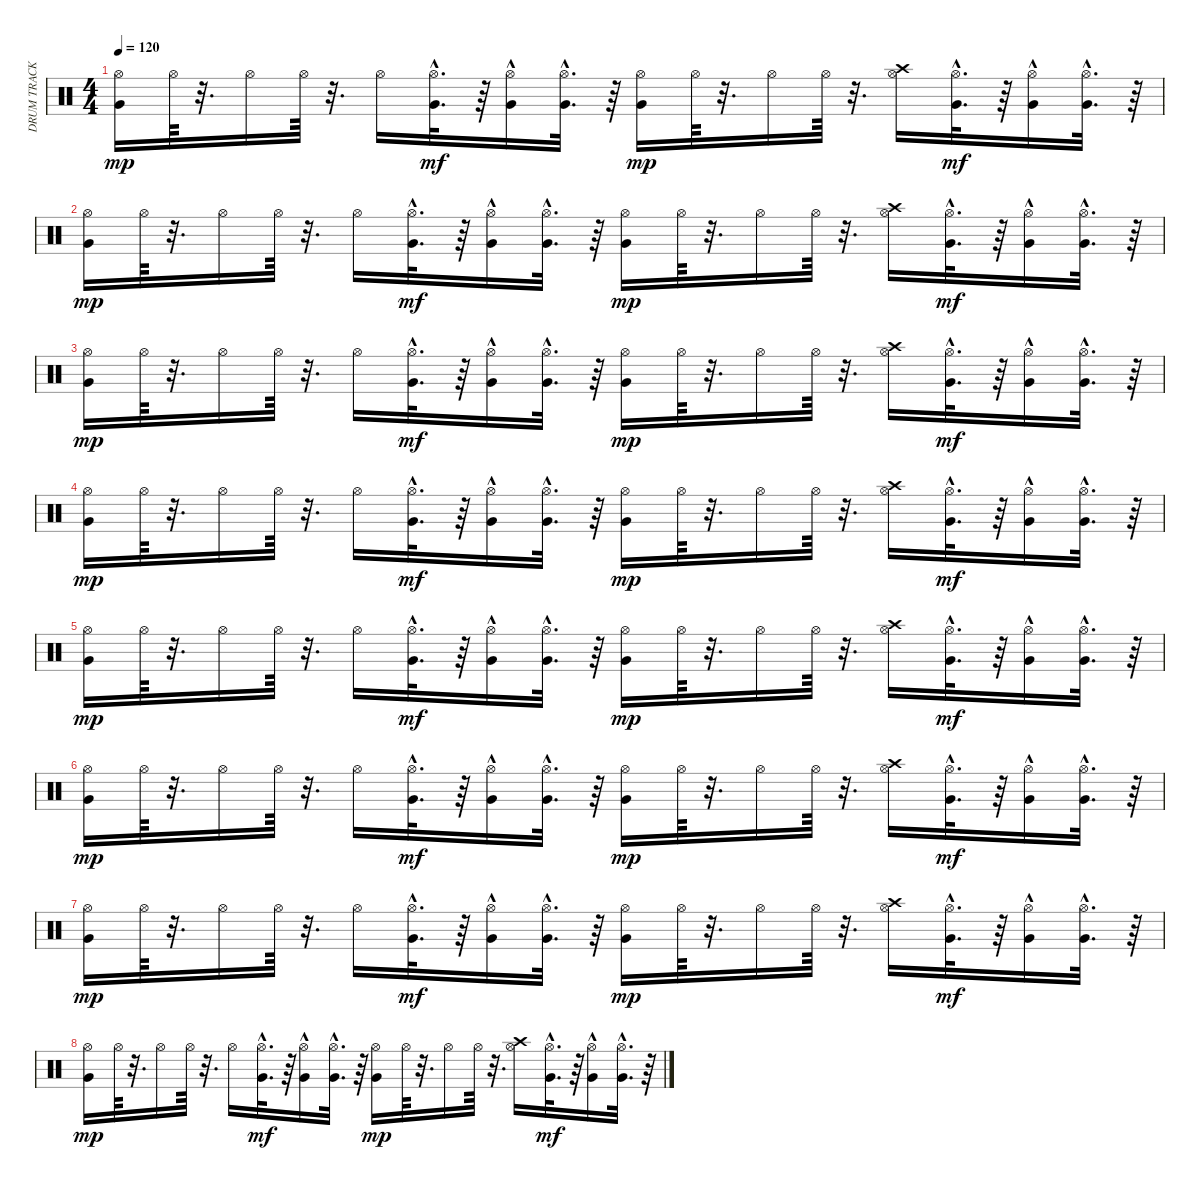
\track ("DRUM TRACK          " "DRUM TRACK") {instrument percussion}
\staff {score}
\articulation defaults
\ts (4 4)
\tempo 120
\clef neutral
\ks c
("Hi-Hat (open)" "Very Low Tom (hit)").16{dy mp} "Hi-Hat (open)".64 r.32{d} "Hi-Hat (open)".16 "Hi-Hat (open)".64 r.32{d} "Hi-Hat (open)".16 ("Hi-Hat (open)" "Very Low Tom (hit)"{hac}).32{d dy mf} r.64 ("Hi-Hat (open)" "Very Low Tom (hit)"{hac}).16 ("Hi-Hat (open)" "Very Low Tom (hit)"{hac}).32{d} r.64 ("Very Low Tom (hit)" "Hi-Hat (open)").16{dy mp} "Hi-Hat (open)".64 r.32{d} "Hi-Hat (open)".16 "Hi-Hat (open)".64 r.32{d} ("Hi-Hat (open)" "Crash high (hit)").16 ("Hi-Hat (open)" "Very Low Tom (hit)"{hac}).32{d dy mf} r.64 ("Hi-Hat (open)" "Very Low Tom (hit)"{hac}).16 ("Hi-Hat (open)" "Very Low Tom (hit)"{hac}).32{d} r.64 |
("Hi-Hat (open)" "Very Low Tom (hit)").16{dy mp} "Hi-Hat (open)".64 r.32{d} "Hi-Hat (open)".16 "Hi-Hat (open)".64 r.32{d} "Hi-Hat (open)".16 ("Hi-Hat (open)" "Very Low Tom (hit)"{hac}).32{d dy mf} r.64 ("Hi-Hat (open)" "Very Low Tom (hit)"{hac}).16 ("Hi-Hat (open)" "Very Low Tom (hit)"{hac}).32{d} r.64 ("Very Low Tom (hit)" "Hi-Hat (open)").16{dy mp} "Hi-Hat (open)".64 r.32{d} "Hi-Hat (open)".16 "Hi-Hat (open)".64 r.32{d} ("Hi-Hat (open)" "Crash high (hit)").16 ("Hi-Hat (open)" "Very Low Tom (hit)"{hac}).32{d dy mf} r.64 ("Hi-Hat (open)" "Very Low Tom (hit)"{hac}).16 ("Hi-Hat (open)" "Very Low Tom (hit)"{hac}).32{d} r.64 |
("Hi-Hat (open)" "Very Low Tom (hit)").16{dy mp} "Hi-Hat (open)".64 r.32{d} "Hi-Hat (open)".16 "Hi-Hat (open)".64 r.32{d} "Hi-Hat (open)".16 ("Hi-Hat (open)" "Very Low Tom (hit)"{hac}).32{d dy mf} r.64 ("Hi-Hat (open)" "Very Low Tom (hit)"{hac}).16 ("Hi-Hat (open)" "Very Low Tom (hit)"{hac}).32{d} r.64 ("Very Low Tom (hit)" "Hi-Hat (open)").16{dy mp} "Hi-Hat (open)".64 r.32{d} "Hi-Hat (open)".16 "Hi-Hat (open)".64 r.32{d} ("Hi-Hat (open)" "Crash high (hit)").16 ("Hi-Hat (open)" "Very Low Tom (hit)"{hac}).32{d dy mf} r.64 ("Hi-Hat (open)" "Very Low Tom (hit)"{hac}).16 ("Hi-Hat (open)" "Very Low Tom (hit)"{hac}).32{d} r.64 |
("Hi-Hat (open)" "Very Low Tom (hit)").16{dy mp} "Hi-Hat (open)".64 r.32{d} "Hi-Hat (open)".16 "Hi-Hat (open)".64 r.32{d} "Hi-Hat (open)".16 ("Hi-Hat (open)" "Very Low Tom (hit)"{hac}).32{d dy mf} r.64 ("Hi-Hat (open)" "Very Low Tom (hit)"{hac}).16 ("Hi-Hat (open)" "Very Low Tom (hit)"{hac}).32{d} r.64 ("Very Low Tom (hit)" "Hi-Hat (open)").16{dy mp} "Hi-Hat (open)".64 r.32{d} "Hi-Hat (open)".16 "Hi-Hat (open)".64 r.32{d} ("Hi-Hat (open)" "Crash high (hit)").16 ("Hi-Hat (open)" "Very Low Tom (hit)"{hac}).32{d dy mf} r.64 ("Hi-Hat (open)" "Very Low Tom (hit)"{hac}).16 ("Hi-Hat (open)" "Very Low Tom (hit)"{hac}).32{d} r.64 |
("Hi-Hat (open)" "Very Low Tom (hit)").16{dy mp} "Hi-Hat (open)".64 r.32{d} "Hi-Hat (open)".16 "Hi-Hat (open)".64 r.32{d} "Hi-Hat (open)".16 ("Hi-Hat (open)" "Very Low Tom (hit)"{hac}).32{d dy mf} r.64 ("Hi-Hat (open)" "Very Low Tom (hit)"{hac}).16 ("Hi-Hat (open)" "Very Low Tom (hit)"{hac}).32{d} r.64 ("Very Low Tom (hit)" "Hi-Hat (open)").16{dy mp} "Hi-Hat (open)".64 r.32{d} "Hi-Hat (open)".16 "Hi-Hat (open)".64 r.32{d} ("Hi-Hat (open)" "Crash high (hit)").16 ("Hi-Hat (open)" "Very Low Tom (hit)"{hac}).32{d dy mf} r.64 ("Hi-Hat (open)" "Very Low Tom (hit)"{hac}).16 ("Hi-Hat (open)" "Very Low Tom (hit)"{hac}).32{d} r.64 |
("Hi-Hat (open)" "Very Low Tom (hit)").16{dy mp} "Hi-Hat (open)".64 r.32{d} "Hi-Hat (open)".16 "Hi-Hat (open)".64 r.32{d} "Hi-Hat (open)".16 ("Hi-Hat (open)" "Very Low Tom (hit)"{hac}).32{d dy mf} r.64 ("Hi-Hat (open)" "Very Low Tom (hit)"{hac}).16 ("Hi-Hat (open)" "Very Low Tom (hit)"{hac}).32{d} r.64 ("Very Low Tom (hit)" "Hi-Hat (open)").16{dy mp} "Hi-Hat (open)".64 r.32{d} "Hi-Hat (open)".16 "Hi-Hat (open)".64 r.32{d} ("Hi-Hat (open)" "Crash high (hit)").16 ("Hi-Hat (open)" "Very Low Tom (hit)"{hac}).32{d dy mf} r.64 ("Hi-Hat (open)" "Very Low Tom (hit)"{hac}).16 ("Hi-Hat (open)" "Very Low Tom (hit)"{hac}).32{d} r.64 |
("Hi-Hat (open)" "Very Low Tom (hit)").16{dy mp} "Hi-Hat (open)".64 r.32{d} "Hi-Hat (open)".16 "Hi-Hat (open)".64 r.32{d} "Hi-Hat (open)".16 ("Hi-Hat (open)" "Very Low Tom (hit)"{hac}).32{d dy mf} r.64 ("Hi-Hat (open)" "Very Low Tom (hit)"{hac}).16 ("Hi-Hat (open)" "Very Low Tom (hit)"{hac}).32{d} r.64 ("Very Low Tom (hit)" "Hi-Hat (open)").16{dy mp} "Hi-Hat (open)".64 r.32{d} "Hi-Hat (open)".16 "Hi-Hat (open)".64 r.32{d} ("Hi-Hat (open)" "Crash high (hit)").16 ("Hi-Hat (open)" "Very Low Tom (hit)"{hac}).32{d dy mf} r.64 ("Hi-Hat (open)" "Very Low Tom (hit)"{hac}).16 ("Hi-Hat (open)" "Very Low Tom (hit)"{hac}).32{d} r.64 |
("Hi-Hat (open)" "Very Low Tom (hit)").16{dy mp} "Hi-Hat (open)".64 r.32{d} "Hi-Hat (open)".16 "Hi-Hat (open)".64 r.32{d} "Hi-Hat (open)".16 ("Hi-Hat (open)" "Very Low Tom (hit)"{hac}).32{d dy mf} r.64 ("Hi-Hat (open)" "Very Low Tom (hit)"{hac}).16 ("Hi-Hat (open)" "Very Low Tom (hit)"{hac}).32{d} r.64 ("Very Low Tom (hit)" "Hi-Hat (open)").16{dy mp} "Hi-Hat (open)".64 r.32{d} "Hi-Hat (open)".16 "Hi-Hat (open)".64 r.32{d} ("Hi-Hat (open)" "Crash high (hit)").16 ("Hi-Hat (open)" "Very Low Tom (hit)"{hac}).32{d dy mf} r.64 ("Hi-Hat (open)" "Very Low Tom (hit)"{hac}).16 ("Hi-Hat (open)" "Very Low Tom (hit)"{hac}).32{d} r.64
